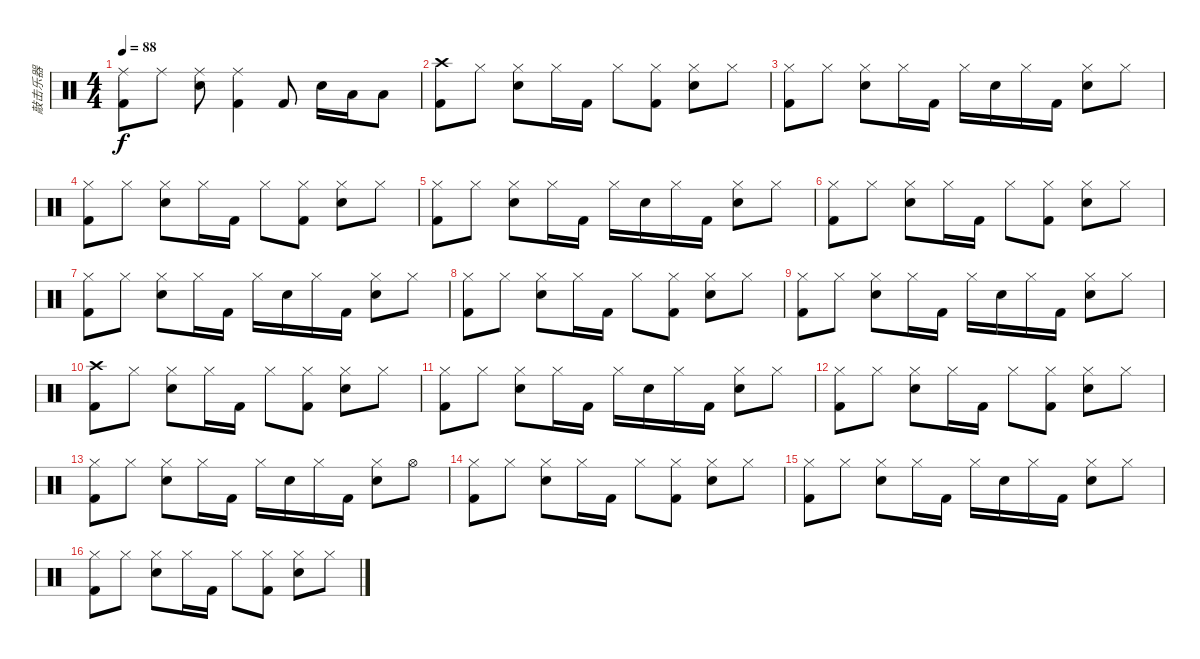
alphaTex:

\track ("敲击乐器" "敲击乐器") {instrument percussion}
\staff {score}
\articulation defaults
\ts (4 4)
\tempo 88
\clef neutral
\ks c
("Ride (middle)" "Kick (hit) 2").8{dy f} "Ride (middle)".8 ("Ride (middle)" "Electric Snare (hit)").8 ("Ride (middle)" "Kick (hit) 2").4 "Kick (hit) 2".8 "Electric Snare (hit)".16 "Low Floor Tom (hit)".16 "Low Tom (hit)".8 |
("Crash high (hit)" "Kick (hit) 2").8 "Hi-Hat (closed)".8 ("Hi-Hat (closed)" "Electric Snare (hit)").8 "Hi-Hat (closed)".16 "Kick (hit) 2".16 "Hi-Hat (closed)".8 ("Hi-Hat (closed)" "Kick (hit) 2").8 ("Hi-Hat (closed)" "Electric Snare (hit)").8 "Hi-Hat (closed)".8 |
("Hi-Hat (closed)" "Kick (hit) 2").8 "Hi-Hat (closed)".8 ("Hi-Hat (closed)" "Electric Snare (hit)").8 "Hi-Hat (closed)".16 "Kick (hit) 2".16 "Hi-Hat (closed)".16 "Electric Snare (hit)".16 "Hi-Hat (closed)".16 "Kick (hit) 2".16 ("Hi-Hat (closed)" "Electric Snare (hit)").8 "Hi-Hat (closed)".8 |
("Hi-Hat (closed)" "Kick (hit) 2").8 "Hi-Hat (closed)".8 ("Hi-Hat (closed)" "Electric Snare (hit)").8 "Hi-Hat (closed)".16 "Kick (hit) 2".16 "Hi-Hat (closed)".8 ("Hi-Hat (closed)" "Kick (hit) 2").8 ("Hi-Hat (closed)" "Electric Snare (hit)").8 "Hi-Hat (closed)".8 |
("Hi-Hat (closed)" "Kick (hit) 2").8 "Hi-Hat (closed)".8 ("Hi-Hat (closed)" "Electric Snare (hit)").8 "Hi-Hat (closed)".16 "Kick (hit) 2".16 "Hi-Hat (closed)".16 "Electric Snare (hit)".16 "Hi-Hat (closed)".16 "Kick (hit) 2".16 ("Hi-Hat (closed)" "Electric Snare (hit)").8 "Hi-Hat (closed)".8 |
("Hi-Hat (closed)" "Kick (hit) 2").8 "Hi-Hat (closed)".8 ("Hi-Hat (closed)" "Electric Snare (hit)").8 "Hi-Hat (closed)".16 "Kick (hit) 2".16 "Hi-Hat (closed)".8 ("Hi-Hat (closed)" "Kick (hit) 2").8 ("Hi-Hat (closed)" "Electric Snare (hit)").8 "Hi-Hat (closed)".8 |
("Hi-Hat (closed)" "Kick (hit) 2").8 "Hi-Hat (closed)".8 ("Hi-Hat (closed)" "Electric Snare (hit)").8 "Hi-Hat (closed)".16 "Kick (hit) 2".16 "Hi-Hat (closed)".16 "Electric Snare (hit)".16 "Hi-Hat (closed)".16 "Kick (hit) 2".16 ("Hi-Hat (closed)" "Electric Snare (hit)").8 "Hi-Hat (closed)".8 |
("Hi-Hat (closed)" "Kick (hit) 2").8 "Hi-Hat (closed)".8 ("Hi-Hat (closed)" "Electric Snare (hit)").8 "Hi-Hat (closed)".16 "Kick (hit) 2".16 "Hi-Hat (closed)".8 ("Hi-Hat (closed)" "Kick (hit) 2").8 ("Hi-Hat (closed)" "Electric Snare (hit)").8 "Hi-Hat (closed)".8 |
("Hi-Hat (closed)" "Kick (hit) 2").8 "Hi-Hat (closed)".8 ("Hi-Hat (closed)" "Electric Snare (hit)").8 "Hi-Hat (closed)".16 "Kick (hit) 2".16 "Hi-Hat (closed)".16 "Electric Snare (hit)".16 "Hi-Hat (closed)".16 "Kick (hit) 2".16 ("Hi-Hat (closed)" "Electric Snare (hit)").8 "Hi-Hat (closed)".8 |
("Crash high (hit)" "Kick (hit) 2").8 "Hi-Hat (closed)".8 ("Hi-Hat (closed)" "Electric Snare (hit)").8 "Hi-Hat (closed)".16 "Kick (hit) 2".16 "Hi-Hat (closed)".8 ("Hi-Hat (closed)" "Kick (hit) 2").8 ("Hi-Hat (closed)" "Electric Snare (hit)").8 "Hi-Hat (closed)".8 |
("Hi-Hat (closed)" "Kick (hit) 2").8 "Hi-Hat (closed)".8 ("Hi-Hat (closed)" "Electric Snare (hit)").8 "Hi-Hat (closed)".16 "Kick (hit) 2".16 "Hi-Hat (closed)".16 "Electric Snare (hit)".16 "Hi-Hat (closed)".16 "Kick (hit) 2".16 ("Hi-Hat (closed)" "Electric Snare (hit)").8 "Hi-Hat (closed)".8 |
("Hi-Hat (closed)" "Kick (hit) 2").8 "Hi-Hat (closed)".8 ("Hi-Hat (closed)" "Electric Snare (hit)").8 "Hi-Hat (closed)".16 "Kick (hit) 2".16 "Hi-Hat (closed)".8 ("Hi-Hat (closed)" "Kick (hit) 2").8 ("Hi-Hat (closed)" "Electric Snare (hit)").8 "Hi-Hat (closed)".8 |
("Hi-Hat (closed)" "Kick (hit) 2").8 "Hi-Hat (closed)".8 ("Hi-Hat (closed)" "Electric Snare (hit)").8 "Hi-Hat (closed)".16 "Kick (hit) 2".16 "Hi-Hat (closed)".16 "Electric Snare (hit)".16 "Hi-Hat (closed)".16 "Kick (hit) 2".16 ("Hi-Hat (closed)" "Electric Snare (hit)").8 "Hi-Hat (open)".8 |
("Hi-Hat (closed)" "Kick (hit) 2").8 "Hi-Hat (closed)".8 ("Hi-Hat (closed)" "Electric Snare (hit)").8 "Hi-Hat (closed)".16 "Kick (hit) 2".16 "Hi-Hat (closed)".8 ("Hi-Hat (closed)" "Kick (hit) 2").8 ("Hi-Hat (closed)" "Electric Snare (hit)").8 "Hi-Hat (closed)".8 |
("Hi-Hat (closed)" "Kick (hit) 2").8 "Hi-Hat (closed)".8 ("Hi-Hat (closed)" "Electric Snare (hit)").8 "Hi-Hat (closed)".16 "Kick (hit) 2".16 "Hi-Hat (closed)".16 "Electric Snare (hit)".16 "Hi-Hat (closed)".16 "Kick (hit) 2".16 ("Hi-Hat (closed)" "Electric Snare (hit)").8 "Hi-Hat (closed)".8 |
("Hi-Hat (closed)" "Kick (hit) 2").8 "Hi-Hat (closed)".8 ("Hi-Hat (closed)" "Electric Snare (hit)").8 "Hi-Hat (closed)".16 "Kick (hit) 2".16 "Hi-Hat (closed)".8 ("Hi-Hat (closed)" "Kick (hit) 2").8 ("Hi-Hat (closed)" "Electric Snare (hit)").8 "Hi-Hat (closed)".8
